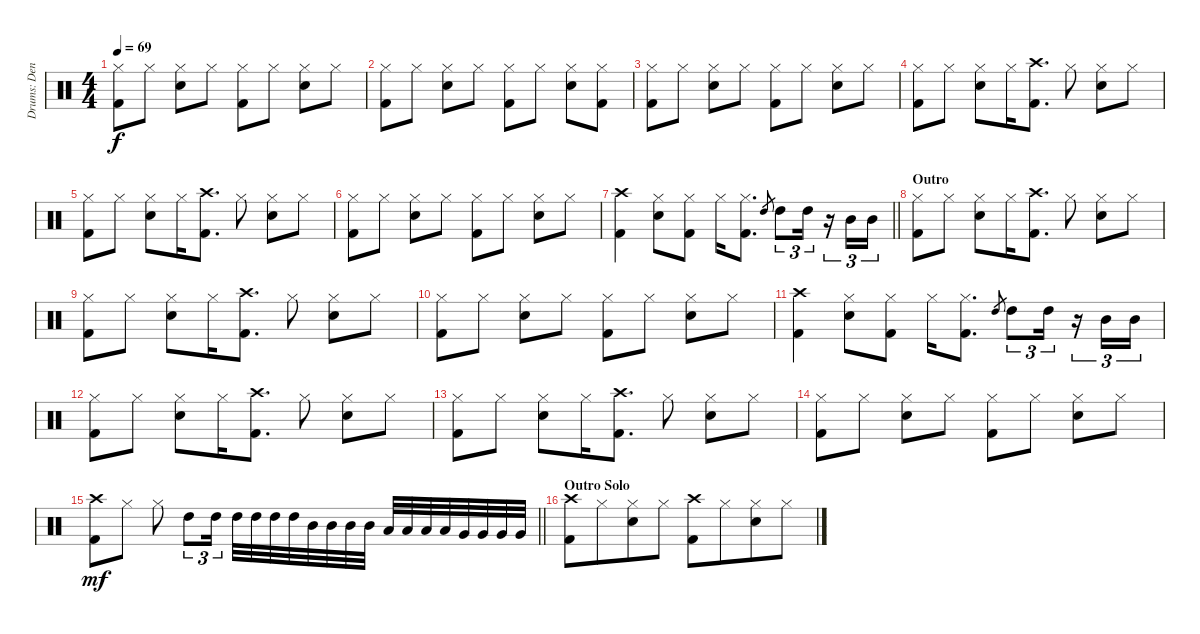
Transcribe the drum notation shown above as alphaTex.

\track ("Drums: Denny" "Drums: Den") {instrument percussion}
\staff {score}
\articulation defaults
\ts (4 4)
\tempo 69
\clef neutral
\ks c
("Hi-Hat (closed)" "Kick (hit) 2").8{dy f} "Hi-Hat (closed)".8 ("Hi-Hat (closed)" "Snare (hit) 2").8 "Hi-Hat (closed)".8 ("Hi-Hat (closed)" "Kick (hit) 2").8 "Hi-Hat (closed)".8 ("Hi-Hat (closed)" "Snare (hit) 2").8 "Hi-Hat (closed)".8 |
("Hi-Hat (closed)" "Kick (hit) 2").8 "Hi-Hat (closed)".8 ("Hi-Hat (closed)" "Snare (hit) 2").8 "Hi-Hat (closed)".8 ("Hi-Hat (closed)" "Kick (hit) 2").8 "Hi-Hat (closed)".8 ("Hi-Hat (closed)" "Snare (hit) 2").8 ("Hi-Hat (closed)" "Kick (hit) 2").8 |
("Hi-Hat (closed)" "Kick (hit) 2").8 "Hi-Hat (closed)".8 ("Hi-Hat (closed)" "Snare (hit) 2").8 "Hi-Hat (closed)".8 ("Hi-Hat (closed)" "Kick (hit) 2").8 "Hi-Hat (closed)".8 ("Hi-Hat (closed)" "Snare (hit) 2").8 "Hi-Hat (closed)".8 |
("Hi-Hat (closed)" "Kick (hit) 2").8 "Hi-Hat (closed)".8 ("Hi-Hat (closed)" "Snare (hit) 2").8 "Hi-Hat (closed)".16 ("Crash high (hit)" "Kick (hit) 2").8{d} "Hi-Hat (closed)".8 ("Hi-Hat (closed)" "Snare (hit) 2").8 "Hi-Hat (closed)".8 |
("Hi-Hat (closed)" "Kick (hit) 2").8 "Hi-Hat (closed)".8 ("Hi-Hat (closed)" "Snare (hit) 2").8 "Hi-Hat (closed)".16 ("Crash high (hit)" "Kick (hit) 2").8{d} "Hi-Hat (closed)".8 ("Hi-Hat (closed)" "Snare (hit) 2").8 "Hi-Hat (closed)".8 |
("Hi-Hat (closed)" "Kick (hit) 2").8 "Hi-Hat (closed)".8 ("Hi-Hat (closed)" "Snare (hit) 2").8 "Hi-Hat (closed)".8 ("Hi-Hat (closed)" "Kick (hit) 2").8 "Hi-Hat (closed)".8 ("Hi-Hat (closed)" "Snare (hit) 2").8 "Hi-Hat (closed)".8 |
\barLineRight lightlight
("Crash high (hit)" "Kick (hit) 2").4 ("Hi-Hat (closed)" "Snare (hit) 2").8 ("Hi-Hat (closed)" "Kick (hit) 2").8 "Hi-Hat (closed)".16 ("Hi-Hat (closed)" "Kick (hit) 2").8{d} "High Tom (hit)".8{gr} "High Tom (hit)".8{tu (3 2)} "High Tom (hit)".16{tu (3 2)} r.16{tu (3 2)} "Mid Tom (hit)".16{tu (3 2)} "Mid Tom (hit)".16{tu (3 2)} |
\section ("" "Outro")
("Hi-Hat (closed)" "Kick (hit) 2").8 "Hi-Hat (closed)".8 ("Hi-Hat (closed)" "Snare (hit) 2").8 "Hi-Hat (closed)".16 ("Crash high (hit)" "Kick (hit) 2").8{d} "Hi-Hat (closed)".8 ("Hi-Hat (closed)" "Snare (hit) 2").8 "Hi-Hat (closed)".8 |
("Hi-Hat (closed)" "Kick (hit) 2").8 "Hi-Hat (closed)".8 ("Hi-Hat (closed)" "Snare (hit) 2").8 "Hi-Hat (closed)".16 ("Crash high (hit)" "Kick (hit) 2").8{d} "Hi-Hat (closed)".8 ("Hi-Hat (closed)" "Snare (hit) 2").8 "Hi-Hat (closed)".8 |
("Hi-Hat (closed)" "Kick (hit) 2").8 "Hi-Hat (closed)".8 ("Hi-Hat (closed)" "Snare (hit) 2").8 "Hi-Hat (closed)".8 ("Hi-Hat (closed)" "Kick (hit) 2").8 "Hi-Hat (closed)".8 ("Hi-Hat (closed)" "Snare (hit) 2").8 "Hi-Hat (closed)".8 |
("Crash high (hit)" "Kick (hit) 2").4 ("Hi-Hat (closed)" "Snare (hit) 2").8 ("Hi-Hat (closed)" "Kick (hit) 2").8 "Hi-Hat (closed)".16 ("Hi-Hat (closed)" "Kick (hit) 2").8{d} "High Tom (hit)".8{gr} "High Tom (hit)".8{tu (3 2)} "High Tom (hit)".16{tu (3 2)} r.16{tu (3 2)} "Mid Tom (hit)".16{tu (3 2)} "Mid Tom (hit)".16{tu (3 2)} |
("Hi-Hat (closed)" "Kick (hit) 2").8 "Hi-Hat (closed)".8 ("Hi-Hat (closed)" "Snare (hit) 2").8 "Hi-Hat (closed)".16 ("Crash high (hit)" "Kick (hit) 2").8{d} "Hi-Hat (closed)".8 ("Hi-Hat (closed)" "Snare (hit) 2").8 "Hi-Hat (closed)".8 |
("Hi-Hat (closed)" "Kick (hit) 2").8 "Hi-Hat (closed)".8 ("Hi-Hat (closed)" "Snare (hit) 2").8 "Hi-Hat (closed)".16 ("Crash high (hit)" "Kick (hit) 2").8{d} "Hi-Hat (closed)".8 ("Hi-Hat (closed)" "Snare (hit) 2").8 "Hi-Hat (closed)".8 |
("Hi-Hat (closed)" "Kick (hit) 2").8 "Hi-Hat (closed)".8 ("Hi-Hat (closed)" "Snare (hit) 2").8 "Hi-Hat (closed)".8 ("Hi-Hat (closed)" "Kick (hit) 2").8 "Hi-Hat (closed)".8 ("Hi-Hat (closed)" "Snare (hit) 2").8 "Hi-Hat (closed)".8 |
\barLineRight lightlight
("Crash high (hit)" "Kick (hit) 2").8{dy mf} "Hi-Hat (closed)".8 "Hi-Hat (closed)".8 "High Tom (hit)".8{tu (3 2)} "High Tom (hit)".16{tu (3 2)} "High Tom (hit)".32 "High Tom (hit)".32 "High Tom (hit)".32 "High Tom (hit)".32 "Mid Tom (hit)".32 "Mid Tom (hit)".32 "Mid Tom (hit)".32 "Mid Tom (hit)".32 "Low Tom (hit)".32 "Low Tom (hit)".32 "Low Tom (hit)".32 "Low Tom (hit)".32 "Very Low Tom (hit)".32 "Very Low Tom (hit)".32 "Very Low Tom (hit)".32 "Very Low Tom (hit)".32 |
\section ("" "Outro Solo")
("Crash high (hit)" "Kick (hit) 2").8 "Hi-Hat (closed)".8{beam merge} ("Hi-Hat (closed)" "Snare (hit) 2").8 "Hi-Hat (closed)".8 ("Crash high (hit)" "Kick (hit) 2").8 "Hi-Hat (closed)".8{beam merge} ("Hi-Hat (closed)" "Snare (hit) 2").8 "Hi-Hat (closed)".8
